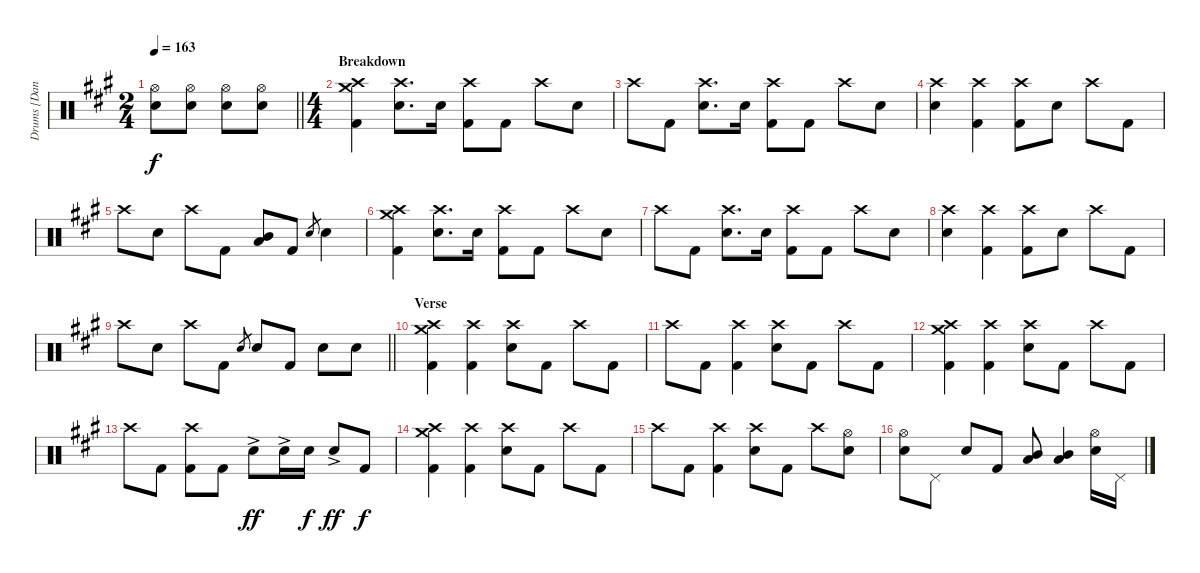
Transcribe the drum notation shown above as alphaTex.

\track ("Drums [Daniel Davison]" "Drums [Dan") {instrument percussion}
\staff {score}
\articulation defaults
\ts (2 4)
\tempo 163
\clef neutral
\barLineRight lightlight
\ks a
("Hi-Hat (open)" "Electric Snare (hit)").8{dy f} ("Hi-Hat (open)" "Electric Snare (hit)").8 ("Hi-Hat (open)" "Electric Snare (hit)").8 ("Hi-Hat (open)" "Electric Snare (hit)").8 |
\ts (4 4)
\section ("" "Breakdown")
("Crash medium (hit)" "Crash high (hit)" "Kick (hit) 2").4 ("Crash high (hit)" "Electric Snare (hit)").8{d} "Electric Snare (hit)".16 ("Crash high (hit)" "Kick (hit) 2").8 "Kick (hit) 2".8 "Crash high (hit)".8 "Electric Snare (hit)".8 |
"Crash high (hit)".8 "Kick (hit) 2".8 ("Crash high (hit)" "Electric Snare (hit)").8{d} "Electric Snare (hit)".16 ("Crash high (hit)" "Kick (hit) 2").8 "Kick (hit) 2".8 "Crash high (hit)".8 "Electric Snare (hit)".8 |
("Crash high (hit)" "Electric Snare (hit)").4 ("Crash high (hit)" "Kick (hit) 2").4 ("Crash high (hit)" "Kick (hit) 2").8 "Electric Snare (hit)".8 "Crash high (hit)".8 "Kick (hit) 2".8 |
"Crash high (hit)".8 "Electric Snare (hit)".8 "Crash high (hit)".8 "Kick (hit) 2".8 ("Mid Tom (hit)" "Low Tom (hit)").8 "Kick (hit) 2".8 "Electric Snare (hit)".8{gr} "Electric Snare (hit)".4 |
("Crash medium (hit)" "Crash high (hit)" "Kick (hit) 2").4 ("Crash high (hit)" "Electric Snare (hit)").8{d} "Electric Snare (hit)".16 ("Crash high (hit)" "Kick (hit) 2").8 "Kick (hit) 2".8 "Crash high (hit)".8 "Electric Snare (hit)".8 |
"Crash high (hit)".8 "Kick (hit) 2".8 ("Crash high (hit)" "Electric Snare (hit)").8{d} "Electric Snare (hit)".16 ("Crash high (hit)" "Kick (hit) 2").8 "Kick (hit) 2".8 "Crash high (hit)".8 "Electric Snare (hit)".8 |
("Crash high (hit)" "Electric Snare (hit)").4 ("Crash high (hit)" "Kick (hit) 2").4 ("Crash high (hit)" "Kick (hit) 2").8 "Electric Snare (hit)".8 "Crash high (hit)".8 "Kick (hit) 2".8 |
\barLineRight lightlight "Crash high (hit)".8 "Electric Snare (hit)".8 "Crash high (hit)".8 "Kick (hit) 2".8 "Electric Snare (hit)".8{gr} "Electric Snare (hit)".8 "Kick (hit) 2".8 "Electric Snare (hit)".8 "Electric Snare (hit)".8
|
\section ("" "Verse")
("Crash medium (hit)" "Crash high (hit)" "Kick (hit) 2").4 ("Crash high (hit)" "Kick (hit) 2").4 ("Crash high (hit)" "Electric Snare (hit)").8 "Kick (hit) 2".8 "Crash high (hit)".8 "Kick (hit) 2".8 |
"Crash high (hit)".8 "Kick (hit) 2".8 ("Crash high (hit)" "Kick (hit) 2").4 ("Crash high (hit)" "Electric Snare (hit)").8 "Kick (hit) 2".8 "Crash high (hit)".8 "Kick (hit) 2".8 |
("Crash medium (hit)" "Crash high (hit)" "Kick (hit) 2").4 ("Crash high (hit)" "Kick (hit) 2").4 ("Crash high (hit)" "Electric Snare (hit)").8 "Kick (hit) 2".8 "Crash high (hit)".8 "Kick (hit) 2".8 |
"Crash high (hit)".8 "Kick (hit) 2".8 ("Crash high (hit)" "Kick (hit) 2").8 "Kick (hit) 2".8 "Electric Snare (hit)"{ac}.8{dy ff} "Electric Snare (hit)"{ac}.16 "Electric Snare (hit)".16{dy f} "Electric Snare (hit)"{ac}.8{dy ff} "Kick (hit) 2".8{dy f} |
("Crash medium (hit)" "Crash high (hit)" "Kick (hit) 2").4 ("Crash high (hit)" "Kick (hit) 2").4 ("Crash high (hit)" "Electric Snare (hit)").8 "Kick (hit) 2".8 "Crash high (hit)".8 "Kick (hit) 2".8 |
"Crash high (hit)".8 "Kick (hit) 2".8 ("Crash high (hit)" "Kick (hit) 2").4 ("Crash high (hit)" "Electric Snare (hit)").8 "Kick (hit) 2".8 "Crash high (hit)".8 ("Hi-Hat (open)" "Electric Snare (hit)").8 |
("Hi-Hat (open)" "Electric Snare (hit)").8 "Pedal Hi-Hat (hit)".8 "Electric Snare (hit)".8 "Kick (hit) 2".8 ("Mid Tom (hit)" "Low Tom (hit)").8 ("Mid Tom (hit)" "Low Tom (hit)").4 ("Hi-Hat (open)" "Electric Snare (hit)").16 "Pedal Hi-Hat (hit)".16
